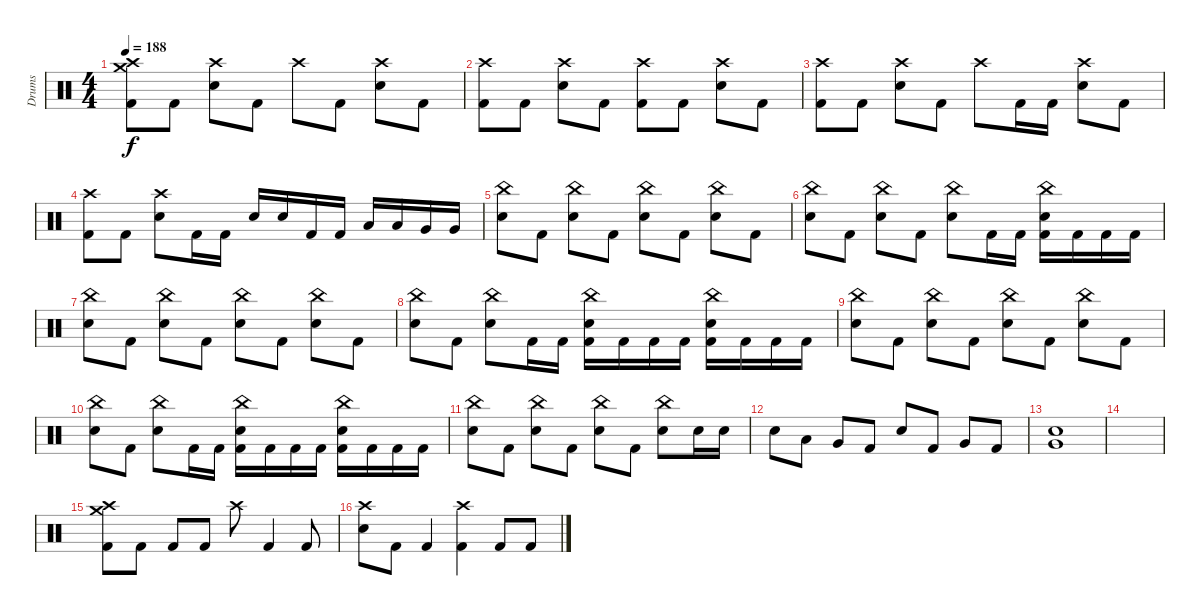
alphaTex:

\track ("Drums" "Drums") {instrument percussion}
\staff {score}
\articulation defaults
\ts (4 4)
\tempo 188
\clef neutral
\ks c
("Crash high (hit)" "Crash medium (hit)" "Kick (hit) 2").8{dy f} "Kick (hit) 2".8 ("Crash high (hit)" "Electric Snare (hit)").8 "Kick (hit) 2".8 "Crash high (hit)".8 "Kick (hit) 2".8 ("Crash high (hit)" "Electric Snare (hit)").8 "Kick (hit) 2".8 |
("Crash high (hit)" "Kick (hit) 2").8 "Kick (hit) 2".8 ("Crash high (hit)" "Electric Snare (hit)").8 "Kick (hit) 2".8 ("Crash high (hit)" "Kick (hit) 2").8 "Kick (hit) 2".8 ("Crash high (hit)" "Electric Snare (hit)").8 "Kick (hit) 2".8 |
("Crash high (hit)" "Kick (hit) 2").8 "Kick (hit) 2".8 ("Crash high (hit)" "Electric Snare (hit)").8 "Kick (hit) 2".8 "Crash high (hit)".8 "Kick (hit) 2".16 "Kick (hit) 2".16 ("Crash high (hit)" "Electric Snare (hit)").8 "Kick (hit) 2".8 |
("Crash high (hit)" "Kick (hit) 2").8 "Kick (hit) 2".8 ("Crash high (hit)" "Electric Snare (hit)").8 "Kick (hit) 2".16 "Kick (hit) 2".16 "Electric Snare (hit)".16 "Electric Snare (hit)".16 "Kick (hit) 2".16 "Kick (hit) 2".16 "Low Tom (hit)".16 "Low Tom (hit)".16 "Very Low Tom (hit)".16 "Very Low Tom (hit)".16 |
("China (hit)" "Electric Snare (hit)").8 "Kick (hit) 2".8 ("China (hit)" "Electric Snare (hit)").8 "Kick (hit) 2".8 ("China (hit)" "Electric Snare (hit)").8 "Kick (hit) 2".8 ("China (hit)" "Electric Snare (hit)").8 "Kick (hit) 2".8 |
("China (hit)" "Electric Snare (hit)").8 "Kick (hit) 2".8 ("China (hit)" "Electric Snare (hit)").8 "Kick (hit) 2".8 ("China (hit)" "Electric Snare (hit)").8 "Kick (hit) 2".16 "Kick (hit) 2".16 ("China (hit)" "Electric Snare (hit)" "Kick (hit) 2").16 "Kick (hit) 2".16 "Kick (hit) 2".16 "Kick (hit) 2".16 |
("China (hit)" "Electric Snare (hit)").8 "Kick (hit) 2".8 ("China (hit)" "Electric Snare (hit)").8 "Kick (hit) 2".8 ("China (hit)" "Electric Snare (hit)").8 "Kick (hit) 2".8 ("China (hit)" "Electric Snare (hit)").8 "Kick (hit) 2".8 |
("China (hit)" "Electric Snare (hit)").8 "Kick (hit) 2".8 ("China (hit)" "Electric Snare (hit)").8 "Kick (hit) 2".16 "Kick (hit) 2".16 ("China (hit)" "Electric Snare (hit)" "Kick (hit) 2").16 "Kick (hit) 2".16 "Kick (hit) 2".16 "Kick (hit) 2".16 ("China (hit)" "Electric Snare (hit)" "Kick (hit) 2").16 "Kick (hit) 2".16 "Kick (hit) 2".16 "Kick (hit) 2".16 |
("China (hit)" "Electric Snare (hit)").8 "Kick (hit) 2".8 ("China (hit)" "Electric Snare (hit)").8 "Kick (hit) 2".8 ("China (hit)" "Electric Snare (hit)").8 "Kick (hit) 2".8 ("China (hit)" "Electric Snare (hit)").8 "Kick (hit) 2".8 |
("China (hit)" "Electric Snare (hit)").8 "Kick (hit) 2".8 ("China (hit)" "Electric Snare (hit)").8 "Kick (hit) 2".16 "Kick (hit) 2".16 ("China (hit)" "Electric Snare (hit)" "Kick (hit) 2").16 "Kick (hit) 2".16 "Kick (hit) 2".16 "Kick (hit) 2".16 ("China (hit)" "Electric Snare (hit)" "Kick (hit) 2").16 "Kick (hit) 2".16 "Kick (hit) 2".16 "Kick (hit) 2".16 |
("China (hit)" "Electric Snare (hit)").8 "Kick (hit) 2".8 ("China (hit)" "Electric Snare (hit)").8 "Kick (hit) 2".8 ("China (hit)" "Electric Snare (hit)").8 "Kick (hit) 2".8 ("China (hit)" "Electric Snare (hit)").8 "Electric Snare (hit)".16 "Electric Snare (hit)".16 |
"Electric Snare (hit)".8 "Low Tom (hit)".8 "Very Low Tom (hit)".8 "Kick (hit) 2".8 "Electric Snare (hit)".8 "Kick (hit) 2".8 "Very Low Tom (hit)".8 "Kick (hit) 2".8 |
("Very Low Tom (hit)" "Electric Snare (hit)").1 |
|
("Crash high (hit)" "Crash medium (hit)" "Kick (hit) 2").8 "Kick (hit) 2".8 "Kick (hit) 2".8 "Kick (hit) 2".8 "Crash high (hit)".8 "Kick (hit) 2".4 "Kick (hit) 2".8 |
("Crash high (hit)" "Electric Snare (hit)").8 "Kick (hit) 2".8 "Kick (hit) 2".4 ("Crash high (hit)" "Kick (hit) 2").4 "Kick (hit) 2".8 "Kick (hit) 2".8
